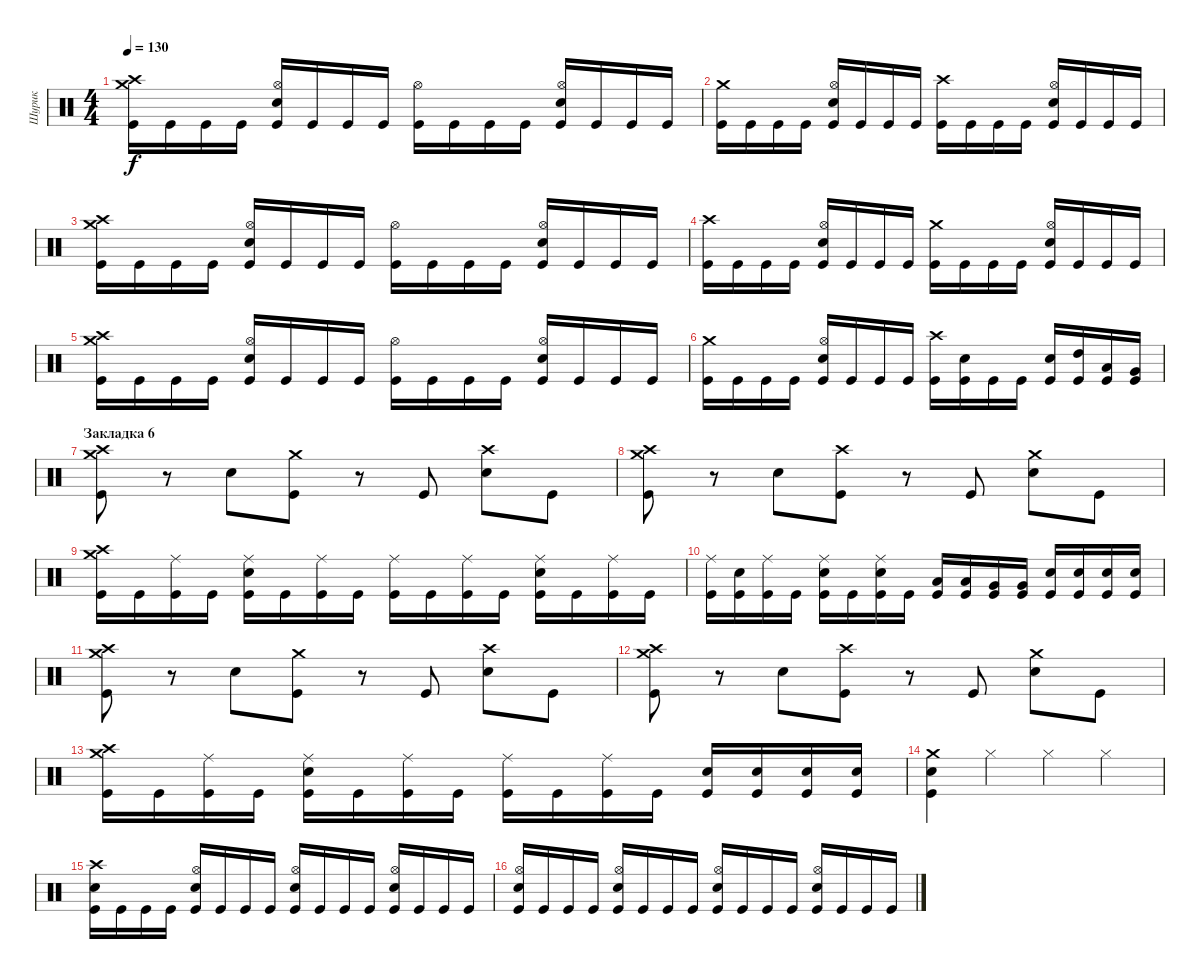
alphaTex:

\track ("Шурик" "Шурик") {instrument percussion}
\staff {score}
\articulation defaults
\ts (4 4)
\tempo 130
\clef neutral
\ks c
("Crash medium (hit)" "Crash high (hit)" "Kick (hit)").16{dy f} "Kick (hit)".16 "Kick (hit)".16 "Kick (hit)".16 ("Hi-Hat (open)" "Electric Snare (hit)" "Kick (hit)").16 "Kick (hit)".16 "Kick (hit)".16 "Kick (hit)".16 ("Hi-Hat (open)" "Kick (hit)").16 "Kick (hit)".16 "Kick (hit)".16 "Kick (hit)".16 ("Hi-Hat (open)" "Electric Snare (hit)" "Kick (hit)").16 "Kick (hit)".16 "Kick (hit)".16 "Kick (hit)".16 |
("Crash medium (hit)" "Kick (hit)").16 "Kick (hit)".16 "Kick (hit)".16 "Kick (hit)".16 ("Hi-Hat (open)" "Electric Snare (hit)" "Kick (hit)").16 "Kick (hit)".16 "Kick (hit)".16 "Kick (hit)".16 ("Crash high (hit)" "Kick (hit)").16 "Kick (hit)".16 "Kick (hit)".16 "Kick (hit)".16 ("Hi-Hat (open)" "Electric Snare (hit)" "Kick (hit)").16 "Kick (hit)".16 "Kick (hit)".16 "Kick (hit)".16 |
("Crash medium (hit)" "Crash high (hit)" "Kick (hit)").16 "Kick (hit)".16 "Kick (hit)".16 "Kick (hit)".16 ("Hi-Hat (open)" "Electric Snare (hit)" "Kick (hit)").16 "Kick (hit)".16 "Kick (hit)".16 "Kick (hit)".16 ("Hi-Hat (open)" "Kick (hit)").16 "Kick (hit)".16 "Kick (hit)".16 "Kick (hit)".16 ("Hi-Hat (open)" "Electric Snare (hit)" "Kick (hit)").16 "Kick (hit)".16 "Kick (hit)".16 "Kick (hit)".16 |
("Crash high (hit)" "Kick (hit)").16 "Kick (hit)".16 "Kick (hit)".16 "Kick (hit)".16 ("Hi-Hat (open)" "Electric Snare (hit)" "Kick (hit)").16 "Kick (hit)".16 "Kick (hit)".16 "Kick (hit)".16 ("Crash medium (hit)" "Kick (hit)").16 "Kick (hit)".16 "Kick (hit)".16 "Kick (hit)".16 ("Hi-Hat (open)" "Electric Snare (hit)" "Kick (hit)").16 "Kick (hit)".16 "Kick (hit)".16 "Kick (hit)".16 |
("Crash medium (hit)" "Crash high (hit)" "Kick (hit)").16 "Kick (hit)".16 "Kick (hit)".16 "Kick (hit)".16 ("Hi-Hat (open)" "Electric Snare (hit)" "Kick (hit)").16 "Kick (hit)".16 "Kick (hit)".16 "Kick (hit)".16 ("Hi-Hat (open)" "Kick (hit)").16 "Kick (hit)".16 "Kick (hit)".16 "Kick (hit)".16 ("Hi-Hat (open)" "Electric Snare (hit)" "Kick (hit)").16 "Kick (hit)".16 "Kick (hit)".16 "Kick (hit)".16 |
("Crash medium (hit)" "Kick (hit)").16 "Kick (hit)".16 "Kick (hit)".16 "Kick (hit)".16 ("Hi-Hat (open)" "Electric Snare (hit)" "Kick (hit)").16 "Kick (hit)".16 "Kick (hit)".16 "Kick (hit)".16 ("Crash high (hit)" "Kick (hit)").16 ("Electric Snare (hit)" "Kick (hit)").16 "Kick (hit)".16 "Kick (hit)".16 ("Electric Snare (hit)" "Kick (hit)").16 ("High Tom (hit)" "Kick (hit)").16 ("Low Tom (hit)" "Kick (hit)").16 ("Very Low Tom (hit)" "Kick (hit)").16 |
\section ("" "Закладка 6")
("Crash medium (hit)" "Crash high (hit)" "Kick (hit)").8 r.8 "Electric Snare (hit)".8 ("Crash medium (hit)" "Kick (hit)").8 r.8 "Kick (hit)".8 ("Crash high (hit)" "Electric Snare (hit)").8 "Kick (hit)".8 |
("Crash medium (hit)" "Crash high (hit)" "Kick (hit)").8 r.8 "Electric Snare (hit)".8 ("Crash high (hit)" "Kick (hit)").8 r.8 "Kick (hit)".8 ("Crash medium (hit)" "Electric Snare (hit)").8 "Kick (hit)".8 |
("Crash medium (hit)" "Crash high (hit)" "Kick (hit)").16 "Kick (hit)".16 ("Ride (middle)" "Kick (hit)").16 "Kick (hit)".16 ("Ride (middle)" "Electric Snare (hit)" "Kick (hit)").16 "Kick (hit)".16 ("Ride (middle)" "Kick (hit)").16 "Kick (hit)".16 ("Ride (middle)" "Kick (hit)").16 "Kick (hit)".16 ("Ride (middle)" "Kick (hit)").16 "Kick (hit)".16 ("Ride (middle)" "Electric Snare (hit)" "Kick (hit)").16 "Kick (hit)".16 ("Ride (middle)" "Kick (hit)").16 "Kick (hit)".16 |
("Ride (middle)" "Kick (hit)").16 ("Electric Snare (hit)" "Kick (hit)").16 ("Ride (middle)" "Kick (hit)").16 "Kick (hit)".16 ("Ride (middle)" "Electric Snare (hit)" "Kick (hit)").16 "Kick (hit)".16 ("Ride (middle)" "Electric Snare (hit)" "Kick (hit)").16 "Kick (hit)".16 ("Low Tom (hit)" "Kick (hit)").16 ("Low Tom (hit)" "Kick (hit)").16 ("Very Low Tom (hit)" "Kick (hit)").16 ("Very Low Tom (hit)" "Kick (hit)").16 ("Electric Snare (hit)" "Kick (hit)").16 ("Electric Snare (hit)" "Kick (hit)").16 ("Electric Snare (hit)" "Kick (hit)").16 ("Electric Snare (hit)" "Kick (hit)").16 |
("Crash medium (hit)" "Crash high (hit)" "Kick (hit)").8 r.8 "Electric Snare (hit)".8 ("Crash medium (hit)" "Kick (hit)").8 r.8 "Kick (hit)".8 ("Crash high (hit)" "Electric Snare (hit)").8 "Kick (hit)".8 |
("Crash medium (hit)" "Crash high (hit)" "Kick (hit)").8 r.8 "Electric Snare (hit)".8 ("Crash high (hit)" "Kick (hit)").8 r.8 "Kick (hit)".8 ("Crash medium (hit)" "Electric Snare (hit)").8 "Kick (hit)".8 |
("Crash medium (hit)" "Crash high (hit)" "Kick (hit)").16 "Kick (hit)".16 ("Ride (middle)" "Kick (hit)").16 "Kick (hit)".16 ("Ride (middle)" "Electric Snare (hit)" "Kick (hit)").16 "Kick (hit)".16 ("Ride (middle)" "Kick (hit)").16 "Kick (hit)".16 ("Ride (middle)" "Kick (hit)").16 "Kick (hit)".16 ("Ride (middle)" "Kick (hit)").16 "Kick (hit)".16 ("Electric Snare (hit)" "Kick (hit)").16 ("Electric Snare (hit)" "Kick (hit)").16 ("Electric Snare (hit)" "Kick (hit)").16 ("Electric Snare (hit)" "Kick (hit)").16 |
("Crash medium (hit)" "Electric Snare (hit)" "Kick (hit)").4 "Hi-Hat (closed)".4 "Hi-Hat (closed)".4 "Hi-Hat (closed)".4 |
("Crash high (hit)" "Electric Snare (hit)" "Kick (hit)").16 "Kick (hit)".16 "Kick (hit)".16 "Kick (hit)".16 ("Hi-Hat (open)" "Electric Snare (hit)" "Kick (hit)").16 "Kick (hit)".16 "Kick (hit)".16 "Kick (hit)".16 ("Hi-Hat (open)" "Electric Snare (hit)" "Kick (hit)").16 "Kick (hit)".16 "Kick (hit)".16 "Kick (hit)".16 ("Hi-Hat (open)" "Electric Snare (hit)" "Kick (hit)").16 "Kick (hit)".16 "Kick (hit)".16 "Kick (hit)".16 |
("Hi-Hat (open)" "Electric Snare (hit)" "Kick (hit)").16 "Kick (hit)".16 "Kick (hit)".16 "Kick (hit)".16 ("Hi-Hat (open)" "Electric Snare (hit)" "Kick (hit)").16 "Kick (hit)".16 "Kick (hit)".16 "Kick (hit)".16 ("Hi-Hat (open)" "Electric Snare (hit)" "Kick (hit)").16 "Kick (hit)".16 "Kick (hit)".16 "Kick (hit)".16 ("Hi-Hat (open)" "Electric Snare (hit)" "Kick (hit)").16 "Kick (hit)".16 "Kick (hit)".16 "Kick (hit)".16
